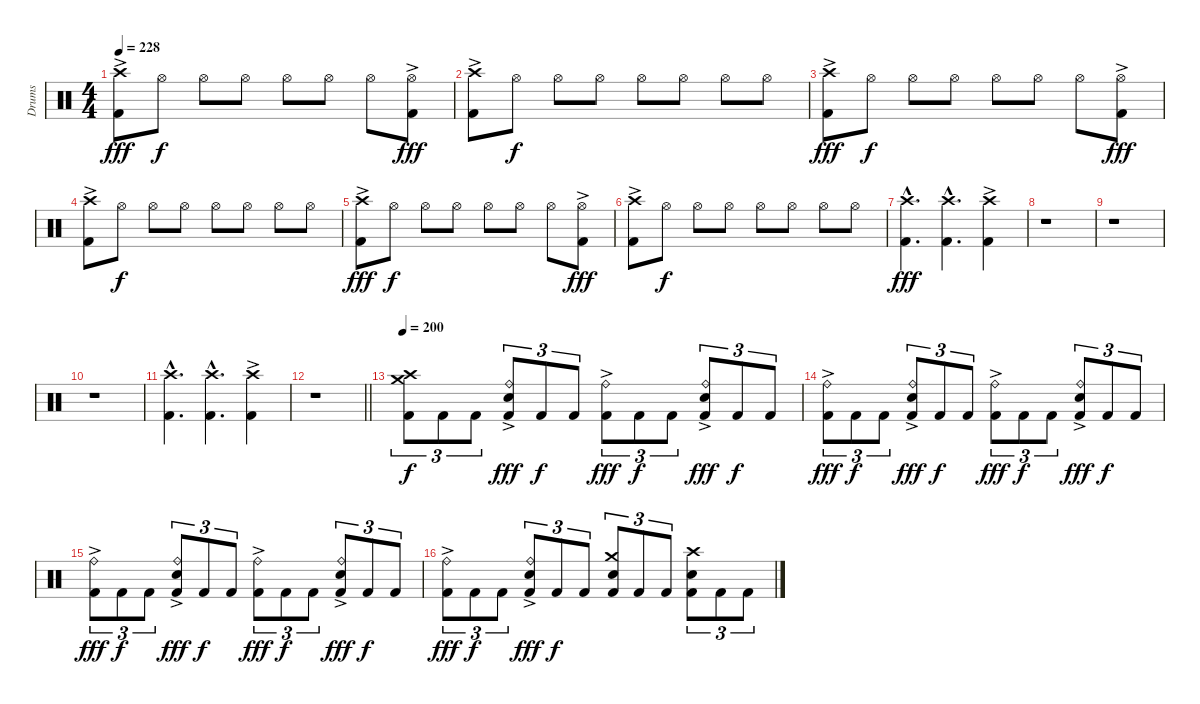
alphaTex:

\track ("Drums" "Drums") {instrument percussion}
\staff {score}
\articulation defaults
\ts (4 4)
\tempo 228
\clef neutral
\ks c
("Crash high (hit)" "Kick (hit) 2"{ac}).8{dy fff} "Hi-Hat (open)".8{dy f} "Hi-Hat (open)".8 "Hi-Hat (open)".8 "Hi-Hat (open)".8 "Hi-Hat (open)".8 "Hi-Hat (open)".8 ("Hi-Hat (open)" "Kick (hit) 2"{ac}).8{dy fff} |
("Crash high (hit)" "Kick (hit) 2"{ac}).8 "Hi-Hat (open)".8{dy f} "Hi-Hat (open)".8 "Hi-Hat (open)".8 "Hi-Hat (open)".8 "Hi-Hat (open)".8 "Hi-Hat (open)".8 "Hi-Hat (open)".8 |
("Crash high (hit)" "Kick (hit) 2"{ac}).8{dy fff} "Hi-Hat (open)".8{dy f} "Hi-Hat (open)".8 "Hi-Hat (open)".8 "Hi-Hat (open)".8 "Hi-Hat (open)".8 "Hi-Hat (open)".8 ("Hi-Hat (open)" "Kick (hit) 2"{ac}).8{dy fff} |
("Crash high (hit)" "Kick (hit) 2"{ac}).8 "Hi-Hat (open)".8{dy f} "Hi-Hat (open)".8 "Hi-Hat (open)".8 "Hi-Hat (open)".8 "Hi-Hat (open)".8 "Hi-Hat (open)".8 "Hi-Hat (open)".8 |
("Crash high (hit)" "Kick (hit) 2"{ac}).8{dy fff} "Hi-Hat (open)".8{dy f} "Hi-Hat (open)".8 "Hi-Hat (open)".8 "Hi-Hat (open)".8 "Hi-Hat (open)".8 "Hi-Hat (open)".8 ("Hi-Hat (open)" "Kick (hit) 2"{ac}).8{dy fff} |
("Crash high (hit)" "Kick (hit) 2"{ac}).8 "Hi-Hat (open)".8{dy f} "Hi-Hat (open)".8 "Hi-Hat (open)".8 "Hi-Hat (open)".8 "Hi-Hat (open)".8 "Hi-Hat (open)".8 "Hi-Hat (open)".8 |
("Crash high (hit)"{hac} "Kick (hit) 2"{hac}).4{d dy fff} ("Crash high (hit)"{hac} "Kick (hit) 2"{hac}).4{d} ("Crash high (hit)" "Kick (hit) 2"{ac}).4 |
r.1 |
r.1 |
r.1 |
("Crash high (hit)"{hac} "Kick (hit) 2"{hac}).4{d} ("Crash high (hit)"{hac} "Kick (hit) 2"{hac}).4{d} ("Crash high (hit)" "Kick (hit) 2"{ac}).4 |
\barLineRight lightlight
r.1 |
\tempo 200
("Crash high (hit)" "Crash medium (hit)" "Kick (hit) 2").8{tu (3 2) dy f} "Kick (hit) 2".8{tu (3 2)} "Kick (hit) 2".8{tu (3 2)} ("Ride (bell)"{ac} "Snare (hit) 2" "Kick (hit) 2").8{tu (3 2) dy fff} "Kick (hit) 2".8{tu (3 2) dy f} "Kick (hit) 2".8{tu (3 2)} ("Ride (bell)"{ac} "Kick (hit) 2").8{tu (3 2) dy fff} "Kick (hit) 2".8{tu (3 2) dy f} "Kick (hit) 2".8{tu (3 2)} ("Ride (bell)"{ac} "Snare (hit) 2" "Kick (hit) 2").8{tu (3 2) dy fff} "Kick (hit) 2".8{tu (3 2) dy f} "Kick (hit) 2".8{tu (3 2)} |
("Ride (bell)"{ac} "Kick (hit) 2").8{tu (3 2) dy fff} "Kick (hit) 2".8{tu (3 2) dy f} "Kick (hit) 2".8{tu (3 2)} ("Ride (bell)"{ac} "Snare (hit) 2" "Kick (hit) 2").8{tu (3 2) dy fff} "Kick (hit) 2".8{tu (3 2) dy f} "Kick (hit) 2".8{tu (3 2)} ("Ride (bell)"{ac} "Kick (hit) 2").8{tu (3 2) dy fff} "Kick (hit) 2".8{tu (3 2) dy f} "Kick (hit) 2".8{tu (3 2)} ("Ride (bell)"{ac} "Snare (hit) 2" "Kick (hit) 2").8{tu (3 2) dy fff} "Kick (hit) 2".8{tu (3 2) dy f} "Kick (hit) 2".8{tu (3 2)} |
("Ride (bell)"{ac} "Kick (hit) 2").8{tu (3 2) dy fff} "Kick (hit) 2".8{tu (3 2) dy f} "Kick (hit) 2".8{tu (3 2)} ("Ride (bell)"{ac} "Snare (hit) 2" "Kick (hit) 2").8{tu (3 2) dy fff} "Kick (hit) 2".8{tu (3 2) dy f} "Kick (hit) 2".8{tu (3 2)} ("Ride (bell)"{ac} "Kick (hit) 2").8{tu (3 2) dy fff} "Kick (hit) 2".8{tu (3 2) dy f} "Kick (hit) 2".8{tu (3 2)} ("Ride (bell)"{ac} "Snare (hit) 2" "Kick (hit) 2").8{tu (3 2) dy fff} "Kick (hit) 2".8{tu (3 2) dy f} "Kick (hit) 2".8{tu (3 2)} |
("Ride (bell)"{ac} "Kick (hit) 2").8{tu (3 2) dy fff} "Kick (hit) 2".8{tu (3 2) dy f} "Kick (hit) 2".8{tu (3 2)} ("Ride (bell)"{ac} "Snare (hit) 2" "Kick (hit) 2").8{tu (3 2) dy fff} "Kick (hit) 2".8{tu (3 2) dy f} "Kick (hit) 2".8{tu (3 2)} ("Crash medium (hit)" "Snare (hit) 2" "Kick (hit) 2").8{tu (3 2)} "Kick (hit) 2".8{tu (3 2)} "Kick (hit) 2".8{tu (3 2)} ("Crash high (hit)" "Snare (hit) 2" "Kick (hit) 2").8{tu (3 2)} "Kick (hit) 2".8{tu (3 2)} "Kick (hit) 2".8{tu (3 2)}
